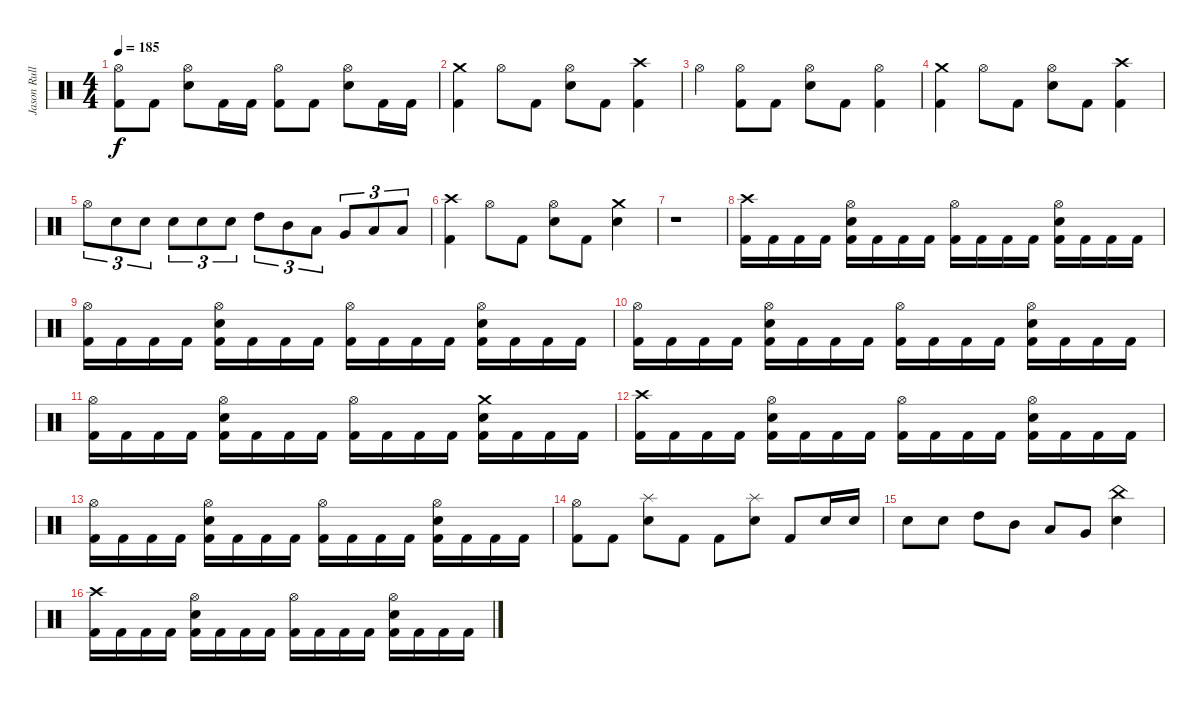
\track ("Jason Rullo" "Jason Rull") {instrument percussion}
\staff {score}
\articulation defaults
\ts (4 4)
\tempo 185
\clef neutral
\ks c
("Hi-Hat (open)" "Kick (hit) 2").8{dy f} "Kick (hit) 2".8 ("Hi-Hat (open)" "Snare (hit) 2").8 "Kick (hit) 2".16 "Kick (hit) 2".16 ("Hi-Hat (open)" "Kick (hit) 2").8 "Kick (hit) 2".8 ("Hi-Hat (open)" "Snare (hit) 2").8 "Kick (hit) 2".16 "Kick (hit) 2".16 |
("Crash medium (hit)" "Kick (hit) 2").4 "Hi-Hat (open)".8 "Kick (hit) 2".8 ("Hi-Hat (open)" "Snare (hit) 2").8 "Kick (hit) 2".8 ("Crash high (hit)" "Kick (hit) 2").4 |
"Hi-Hat (open)".4 ("Hi-Hat (open)" "Kick (hit) 2").8 "Kick (hit) 2".8 ("Hi-Hat (open)" "Snare (hit) 2").8 "Kick (hit) 2".8 ("Hi-Hat (open)" "Kick (hit) 2").4 |
("Crash medium (hit)" "Kick (hit) 2").4 "Hi-Hat (open)".8 "Kick (hit) 2".8 ("Hi-Hat (open)" "Snare (hit) 2").8 "Kick (hit) 2".8 ("Crash high (hit)" "Kick (hit) 2").4 |
"Hi-Hat (open)".8{tu (3 2)} "Snare (hit) 2".8{tu (3 2)} "Snare (hit) 2".8{tu (3 2)} "Snare (hit) 2".8{tu (3 2)} "Snare (hit) 2".8{tu (3 2)} "Snare (hit) 2".8{tu (3 2)} "High Tom (hit)".8{tu (3 2)} "Mid Tom (hit)".8{tu (3 2)} "Low Tom (hit)".8{tu (3 2)} "Very Low Tom (hit)".8{tu (3 2)} "Low Floor Tom (hit)".8{tu (3 2)} "Low Floor Tom (hit)".8{tu (3 2)} |
("Crash high (hit)" "Kick (hit) 2").4 "Hi-Hat (open)".8 "Kick (hit) 2".8 ("Hi-Hat (open)" "Snare (hit) 2").8 "Kick (hit) 2".8 ("Crash medium (hit)" "Snare (hit) 2").4 |
r.1 |
("Crash high (hit)" "Kick (hit) 2").16 "Kick (hit) 2".16 "Kick (hit) 2".16 "Kick (hit) 2".16 ("Hi-Hat (open)" "Snare (hit) 2" "Kick (hit) 2").16 "Kick (hit) 2".16 "Kick (hit) 2".16 "Kick (hit) 2".16 ("Hi-Hat (open)" "Kick (hit) 2").16 "Kick (hit) 2".16 "Kick (hit) 2".16 "Kick (hit) 2".16 ("Hi-Hat (open)" "Snare (hit) 2" "Kick (hit) 2").16 "Kick (hit) 2".16 "Kick (hit) 2".16 "Kick (hit) 2".16 |
("Hi-Hat (open)" "Kick (hit) 2").16 "Kick (hit) 2".16 "Kick (hit) 2".16 "Kick (hit) 2".16 ("Hi-Hat (open)" "Snare (hit) 2" "Kick (hit) 2").16 "Kick (hit) 2".16 "Kick (hit) 2".16 "Kick (hit) 2".16 ("Hi-Hat (open)" "Kick (hit) 2").16 "Kick (hit) 2".16 "Kick (hit) 2".16 "Kick (hit) 2".16 ("Hi-Hat (open)" "Snare (hit) 2" "Kick (hit) 2").16 "Kick (hit) 2".16 "Kick (hit) 2".16 "Kick (hit) 2".16 |
("Hi-Hat (open)" "Kick (hit) 2").16 "Kick (hit) 2".16 "Kick (hit) 2".16 "Kick (hit) 2".16 ("Hi-Hat (open)" "Snare (hit) 2" "Kick (hit) 2").16 "Kick (hit) 2".16 "Kick (hit) 2".16 "Kick (hit) 2".16 ("Hi-Hat (open)" "Kick (hit) 2").16 "Kick (hit) 2".16 "Kick (hit) 2".16 "Kick (hit) 2".16 ("Hi-Hat (open)" "Snare (hit) 2" "Kick (hit) 2").16 "Kick (hit) 2".16 "Kick (hit) 2".16 "Kick (hit) 2".16 |
("Hi-Hat (open)" "Kick (hit) 2").16 "Kick (hit) 2".16 "Kick (hit) 2".16 "Kick (hit) 2".16 ("Hi-Hat (open)" "Snare (hit) 2" "Kick (hit) 2").16 "Kick (hit) 2".16 "Kick (hit) 2".16 "Kick (hit) 2".16 ("Hi-Hat (open)" "Kick (hit) 2").16 "Kick (hit) 2".16 "Kick (hit) 2".16 "Kick (hit) 2".16 ("Crash medium (hit)" "Snare (hit) 2" "Kick (hit) 2").16 "Kick (hit) 2".16 "Kick (hit) 2".16 "Kick (hit) 2".16 |
("Crash high (hit)" "Kick (hit) 2").16 "Kick (hit) 2".16 "Kick (hit) 2".16 "Kick (hit) 2".16 ("Hi-Hat (open)" "Snare (hit) 2" "Kick (hit) 2").16 "Kick (hit) 2".16 "Kick (hit) 2".16 "Kick (hit) 2".16 ("Hi-Hat (open)" "Kick (hit) 2").16 "Kick (hit) 2".16 "Kick (hit) 2".16 "Kick (hit) 2".16 ("Hi-Hat (open)" "Snare (hit) 2" "Kick (hit) 2").16 "Kick (hit) 2".16 "Kick (hit) 2".16 "Kick (hit) 2".16 |
("Hi-Hat (open)" "Kick (hit) 2").16 "Kick (hit) 2".16 "Kick (hit) 2".16 "Kick (hit) 2".16 ("Hi-Hat (open)" "Snare (hit) 2" "Kick (hit) 2").16 "Kick (hit) 2".16 "Kick (hit) 2".16 "Kick (hit) 2".16 ("Hi-Hat (open)" "Kick (hit) 2").16 "Kick (hit) 2".16 "Kick (hit) 2".16 "Kick (hit) 2".16 ("Hi-Hat (open)" "Snare (hit) 2" "Kick (hit) 2").16 "Kick (hit) 2".16 "Kick (hit) 2".16 "Kick (hit) 2".16 |
("Hi-Hat (open)" "Kick (hit) 2").8 "Kick (hit) 2".8 ("Splash (hit)" "Snare (hit) 2").8 "Kick (hit) 2".8 "Kick (hit) 2".8 ("Splash (hit)" "Snare (hit) 2").8 "Kick (hit) 2".8 "Snare (hit) 2".16 "Snare (hit) 2".16 |
"Snare (hit) 2".8 "Snare (hit) 2".8 "High Tom (hit)".8 "Mid Tom (hit)".8 "Low Tom (hit)".8 "Very Low Tom (hit)".8 ("China (hit)" "Snare (hit) 2").4 |
("Crash high (hit)" "Kick (hit) 2").16 "Kick (hit) 2".16 "Kick (hit) 2".16 "Kick (hit) 2".16 ("Hi-Hat (open)" "Snare (hit) 2" "Kick (hit) 2").16 "Kick (hit) 2".16 "Kick (hit) 2".16 "Kick (hit) 2".16 ("Hi-Hat (open)" "Kick (hit) 2").16 "Kick (hit) 2".16 "Kick (hit) 2".16 "Kick (hit) 2".16 ("Hi-Hat (open)" "Snare (hit) 2" "Kick (hit) 2").16 "Kick (hit) 2".16 "Kick (hit) 2".16 "Kick (hit) 2".16
